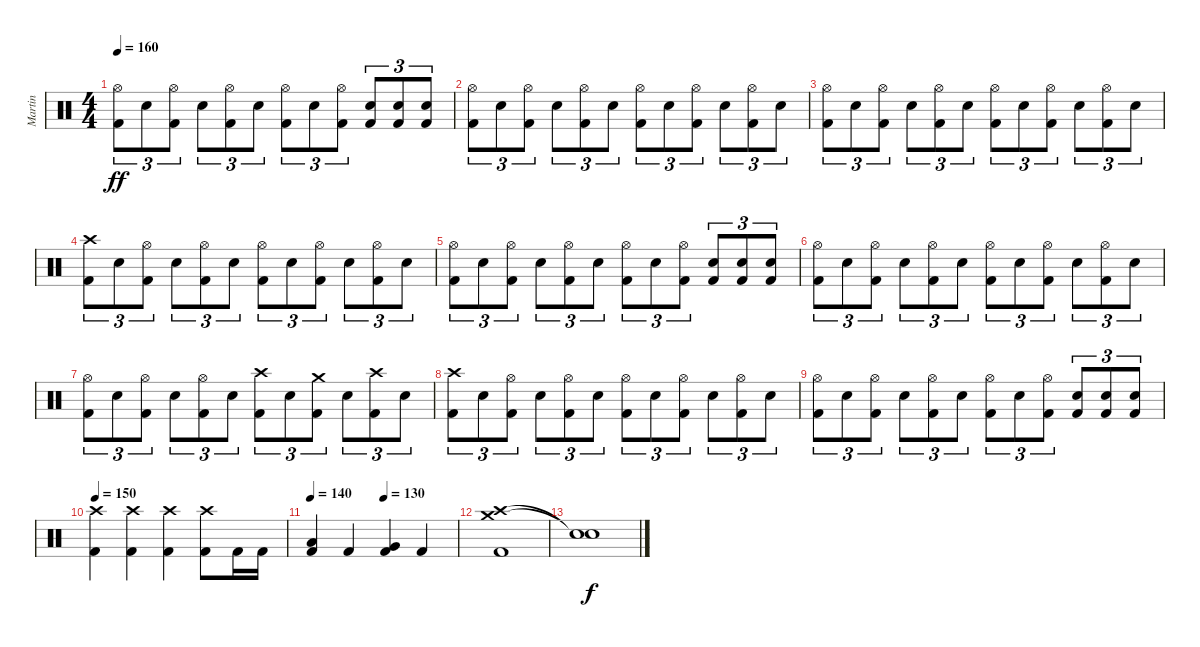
\track ("Martin" "Martin") {instrument percussion}
\staff {score}
\articulation defaults
\ts (4 4)
\tempo 160
\clef neutral
\ks c
("Hi-Hat (open)" "Kick (hit) 2").8{tu (3 2) dy ff} "Electric Snare (hit)".8{tu (3 2)} ("Hi-Hat (open)" "Kick (hit) 2").8{tu (3 2)} "Electric Snare (hit)".8{tu (3 2)} ("Hi-Hat (open)" "Kick (hit) 2").8{tu (3 2)} "Electric Snare (hit)".8{tu (3 2)} ("Hi-Hat (open)" "Kick (hit) 2").8{tu (3 2)} "Electric Snare (hit)".8{tu (3 2)} ("Hi-Hat (open)" "Kick (hit) 2").8{tu (3 2)} ("Electric Snare (hit)" "Kick (hit) 2").8{tu (3 2)} ("Electric Snare (hit)" "Kick (hit) 2").8{tu (3 2)} ("Electric Snare (hit)" "Kick (hit) 2").8{tu (3 2)} |
("Hi-Hat (open)" "Kick (hit) 2").8{tu (3 2)} "Electric Snare (hit)".8{tu (3 2)} ("Hi-Hat (open)" "Kick (hit) 2").8{tu (3 2)} "Electric Snare (hit)".8{tu (3 2)} ("Hi-Hat (open)" "Kick (hit) 2").8{tu (3 2)} "Electric Snare (hit)".8{tu (3 2)} ("Hi-Hat (open)" "Kick (hit) 2").8{tu (3 2)} "Electric Snare (hit)".8{tu (3 2)} ("Hi-Hat (open)" "Kick (hit) 2").8{tu (3 2)} "Electric Snare (hit)".8{tu (3 2)} ("Hi-Hat (open)" "Kick (hit) 2").8{tu (3 2)} "Electric Snare (hit)".8{tu (3 2)} |
("Hi-Hat (open)" "Kick (hit) 2").8{tu (3 2)} "Electric Snare (hit)".8{tu (3 2)} ("Hi-Hat (open)" "Kick (hit) 2").8{tu (3 2)} "Electric Snare (hit)".8{tu (3 2)} ("Hi-Hat (open)" "Kick (hit) 2").8{tu (3 2)} "Electric Snare (hit)".8{tu (3 2)} ("Hi-Hat (open)" "Kick (hit) 2").8{tu (3 2)} "Electric Snare (hit)".8{tu (3 2)} ("Hi-Hat (open)" "Kick (hit) 2").8{tu (3 2)} "Electric Snare (hit)".8{tu (3 2)} ("Hi-Hat (open)" "Kick (hit) 2").8{tu (3 2)} "Electric Snare (hit)".8{tu (3 2)} |
("Crash high (hit)" "Kick (hit) 2").8{tu (3 2)} "Electric Snare (hit)".8{tu (3 2)} ("Hi-Hat (open)" "Kick (hit) 2").8{tu (3 2)} "Electric Snare (hit)".8{tu (3 2)} ("Hi-Hat (open)" "Kick (hit) 2").8{tu (3 2)} "Electric Snare (hit)".8{tu (3 2)} ("Hi-Hat (open)" "Kick (hit) 2").8{tu (3 2)} "Electric Snare (hit)".8{tu (3 2)} ("Hi-Hat (open)" "Kick (hit) 2").8{tu (3 2)} "Electric Snare (hit)".8{tu (3 2)} ("Hi-Hat (open)" "Kick (hit) 2").8{tu (3 2)} "Electric Snare (hit)".8{tu (3 2)} |
("Hi-Hat (open)" "Kick (hit) 2").8{tu (3 2)} "Electric Snare (hit)".8{tu (3 2)} ("Hi-Hat (open)" "Kick (hit) 2").8{tu (3 2)} "Electric Snare (hit)".8{tu (3 2)} ("Hi-Hat (open)" "Kick (hit) 2").8{tu (3 2)} "Electric Snare (hit)".8{tu (3 2)} ("Hi-Hat (open)" "Kick (hit) 2").8{tu (3 2)} "Electric Snare (hit)".8{tu (3 2)} ("Hi-Hat (open)" "Kick (hit) 2").8{tu (3 2)} ("Electric Snare (hit)" "Kick (hit) 2").8{tu (3 2)} ("Electric Snare (hit)" "Kick (hit) 2").8{tu (3 2)} ("Electric Snare (hit)" "Kick (hit) 2").8{tu (3 2)} |
("Hi-Hat (open)" "Kick (hit) 2").8{tu (3 2)} "Electric Snare (hit)".8{tu (3 2)} ("Hi-Hat (open)" "Kick (hit) 2").8{tu (3 2)} "Electric Snare (hit)".8{tu (3 2)} ("Hi-Hat (open)" "Kick (hit) 2").8{tu (3 2)} "Electric Snare (hit)".8{tu (3 2)} ("Hi-Hat (open)" "Kick (hit) 2").8{tu (3 2)} "Electric Snare (hit)".8{tu (3 2)} ("Hi-Hat (open)" "Kick (hit) 2").8{tu (3 2)} "Electric Snare (hit)".8{tu (3 2)} ("Hi-Hat (open)" "Kick (hit) 2").8{tu (3 2)} "Electric Snare (hit)".8{tu (3 2)} |
("Hi-Hat (open)" "Kick (hit) 2").8{tu (3 2)} "Electric Snare (hit)".8{tu (3 2)} ("Hi-Hat (open)" "Kick (hit) 2").8{tu (3 2)} "Electric Snare (hit)".8{tu (3 2)} ("Hi-Hat (open)" "Kick (hit) 2").8{tu (3 2)} "Electric Snare (hit)".8{tu (3 2)} ("Crash high (hit)" "Kick (hit) 2").8{tu (3 2)} "Electric Snare (hit)".8{tu (3 2)} ("Crash medium (hit)" "Kick (hit) 2").8{tu (3 2)} "Electric Snare (hit)".8{tu (3 2)} ("Crash high (hit)" "Kick (hit) 2").8{tu (3 2)} "Electric Snare (hit)".8{tu (3 2)} |
("Crash high (hit)" "Kick (hit) 2").8{tu (3 2)} "Electric Snare (hit)".8{tu (3 2)} ("Hi-Hat (open)" "Kick (hit) 2").8{tu (3 2)} "Electric Snare (hit)".8{tu (3 2)} ("Hi-Hat (open)" "Kick (hit) 2").8{tu (3 2)} "Electric Snare (hit)".8{tu (3 2)} ("Hi-Hat (open)" "Kick (hit) 2").8{tu (3 2)} "Electric Snare (hit)".8{tu (3 2)} ("Hi-Hat (open)" "Kick (hit) 2").8{tu (3 2)} "Electric Snare (hit)".8{tu (3 2)} ("Hi-Hat (open)" "Kick (hit) 2").8{tu (3 2)} "Electric Snare (hit)".8{tu (3 2)} |
("Hi-Hat (open)" "Kick (hit) 2").8{tu (3 2)} "Electric Snare (hit)".8{tu (3 2)} ("Hi-Hat (open)" "Kick (hit) 2").8{tu (3 2)} "Electric Snare (hit)".8{tu (3 2)} ("Hi-Hat (open)" "Kick (hit) 2").8{tu (3 2)} "Electric Snare (hit)".8{tu (3 2)} ("Hi-Hat (open)" "Kick (hit) 2").8{tu (3 2)} "Electric Snare (hit)".8{tu (3 2)} ("Hi-Hat (open)" "Kick (hit) 2").8{tu (3 2)} ("Electric Snare (hit)" "Kick (hit) 2").8{tu (3 2)} ("Electric Snare (hit)" "Kick (hit) 2").8{tu (3 2)} ("Electric Snare (hit)" "Kick (hit) 2").8{tu (3 2)} |
\tempo 150
("Crash high (hit)" "Kick (hit) 2").4 ("Crash high (hit)" "Kick (hit) 2").4 ("Crash high (hit)" "Kick (hit) 2").4 ("Crash high (hit)" "Kick (hit) 2").8 "Kick (hit) 2".16 "Kick (hit) 2".16 |
\tempo 140
\tempo (130 0.5)
("Low Tom (hit)" "Kick (hit) 2").4 "Kick (hit) 2".4 ("Very Low Tom (hit)" "Kick (hit) 2").4 "Kick (hit) 2".4 |
("Crash medium (hit)" "Crash high (hit)" "Kick (hit) 2").1 |
("Snare (hit)"{t} "Snare (hit)"{t}).1{dy f}
